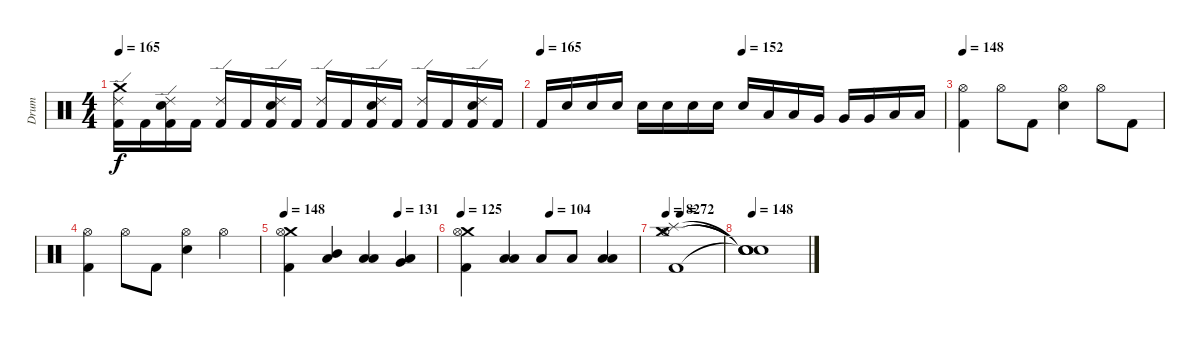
\track ("Drum" "Drum") {instrument percussion}
\staff {score}
\articulation defaults
\ts (4 4)
\tempo 165
\clef neutral
\ks c
("Crash medium (hit)" "Ride (edge) 2" "Kick (hit) 2").16{dy f} "Kick (hit) 2".16 ("Electric Snare (hit)" "Ride (edge) 2" "Kick (hit) 2").16 "Kick (hit) 2".16 ("Ride (edge) 2" "Kick (hit) 2").16 "Kick (hit) 2".16 ("Electric Snare (hit)" "Ride (edge) 2" "Kick (hit) 2").16 "Kick (hit) 2".16 ("Ride (edge) 2" "Kick (hit) 2").16 "Kick (hit) 2".16 ("Electric Snare (hit)" "Ride (edge) 2" "Kick (hit) 2").16 "Kick (hit) 2".16 ("Ride (edge) 2" "Kick (hit) 2").16 "Kick (hit) 2".16 ("Electric Snare (hit)" "Ride (edge) 2" "Kick (hit) 2").16 "Kick (hit) 2".16 |
\tempo 165
\tempo (152 0.5)
"Kick (hit) 2".16 "Electric Snare (hit)".16 "Electric Snare (hit)".16 "Electric Snare (hit)".16 "Electric Snare (hit)".16 "Electric Snare (hit)".16 "Electric Snare (hit)".16 "Electric Snare (hit)".16 "Electric Snare (hit)".16 "Low Tom (hit)".16 "Low Tom (hit)".16 "Very Low Tom (hit)".16 "Very Low Tom (hit)".16 "Very Low Tom (hit)".16 "Low Floor Tom (hit)".16 "Low Floor Tom (hit)".16 |
\tempo 148
("Kick (hit) 2" "Hi-Hat (open)").4 "Hi-Hat (open)".8 "Kick (hit) 2".8 ("Electric Snare (hit)" "Hi-Hat (open)").4 "Hi-Hat (open)".8 "Kick (hit) 2".8 |
("Kick (hit) 2" "Hi-Hat (open)").4 "Hi-Hat (open)".8 "Kick (hit) 2".8 ("Electric Snare (hit)" "Hi-Hat (open)").4 "Hi-Hat (open)".4 |
\tempo 148
\tempo (131 0.75)
("Crash medium (hit)" "Kick (hit) 2" "Hi-Hat (open)").4 ("Mid Tom (hit)" "Low Floor Tom (hit)").4 ("Low Floor Tom (hit)" "Low Tom (hit)").4 ("Very Low Tom (hit)" "Low Floor Tom (hit)").4 |
\tempo 125
\tempo (104 0.5)
("Crash medium (hit)" "Hi-Hat (open)" "Kick (hit) 2").4 ("Low Tom (hit)" "Low Floor Tom (hit)").4 "Low Tom (hit)".8 "Low Floor Tom (hit)".8 ("Low Floor Tom (hit)" "Low Tom (hit)").4 |
\tempo 82
\tempo (72 0.25)
("Crash medium (hit)" "Splash (hit)" "Hi-Hat (open)" "Kick (hit) 2").1 |
\tempo 148
("Snare (hit)"{t} "Snare (hit)"{t} "Snare (hit)"{t} "Snare (hit)"{t}).1
